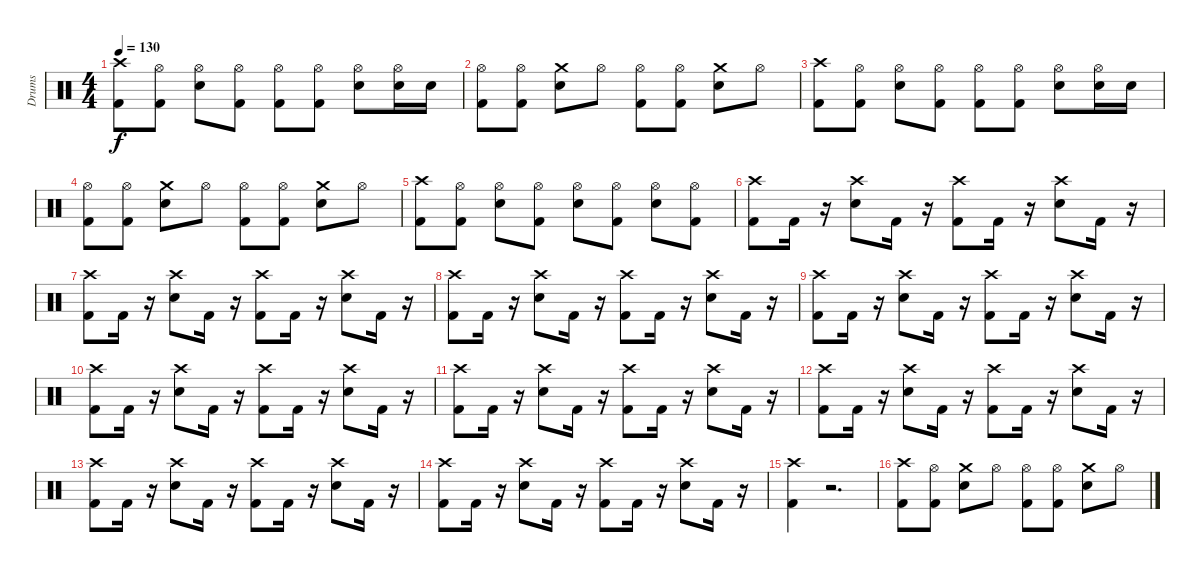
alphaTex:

\track ("Drums" "Drums") {instrument percussion}
\staff {score}
\articulation defaults
\ts (4 4)
\tempo 130
\clef neutral
\ks c
("Kick (hit) 2" "Crash high (hit)").8{dy f} ("Kick (hit) 2" "Hi-Hat (open)").8 ("Electric Snare (hit)" "Hi-Hat (open)").8 ("Kick (hit) 2" "Hi-Hat (open)").8 ("Kick (hit) 2" "Hi-Hat (open)").8 ("Kick (hit) 2" "Hi-Hat (open)").8 ("Electric Snare (hit)" "Hi-Hat (open)").8 ("Electric Snare (hit)" "Hi-Hat (open)").16 "Electric Snare (hit)".16 |
("Kick (hit) 2" "Hi-Hat (open)").8 ("Kick (hit) 2" "Hi-Hat (open)").8 ("Electric Snare (hit)" "Crash medium (hit)").8 "Hi-Hat (open)".8 ("Kick (hit) 2" "Hi-Hat (open)").8 ("Kick (hit) 2" "Hi-Hat (open)").8 ("Electric Snare (hit)" "Crash medium (hit)").8 "Hi-Hat (open)".8 |
("Kick (hit) 2" "Crash high (hit)").8 ("Kick (hit) 2" "Hi-Hat (open)").8 ("Electric Snare (hit)" "Hi-Hat (open)").8 ("Kick (hit) 2" "Hi-Hat (open)").8 ("Kick (hit) 2" "Hi-Hat (open)").8 ("Kick (hit) 2" "Hi-Hat (open)").8 ("Electric Snare (hit)" "Hi-Hat (open)").8 ("Electric Snare (hit)" "Hi-Hat (open)").16 "Electric Snare (hit)".16 |
("Kick (hit) 2" "Hi-Hat (open)").8 ("Kick (hit) 2" "Hi-Hat (open)").8 ("Electric Snare (hit)" "Crash medium (hit)").8 "Hi-Hat (open)".8 ("Kick (hit) 2" "Hi-Hat (open)").8 ("Kick (hit) 2" "Hi-Hat (open)").8 ("Electric Snare (hit)" "Crash medium (hit)").8 "Hi-Hat (open)".8 |
("Kick (hit) 2" "Crash high (hit)").8 ("Kick (hit) 2" "Hi-Hat (open)").8 ("Electric Snare (hit)" "Hi-Hat (open)").8 ("Kick (hit) 2" "Hi-Hat (open)").8 ("Hi-Hat (open)" "Electric Snare (hit)").8 ("Kick (hit) 2" "Hi-Hat (open)").8 ("Electric Snare (hit)" "Hi-Hat (open)").8 ("Hi-Hat (open)" "Kick (hit) 2").8 |
("Kick (hit) 2" "Crash high (hit)").8 "Kick (hit) 2".16 r.16 ("Electric Snare (hit)" "Crash high (hit)").8 "Kick (hit) 2".16 r.16 ("Kick (hit) 2" "Crash high (hit)").8 "Kick (hit) 2".16 r.16 ("Electric Snare (hit)" "Crash high (hit)").8 "Kick (hit) 2".16 r.16 |
("Kick (hit) 2" "Crash high (hit)").8 "Kick (hit) 2".16 r.16 ("Electric Snare (hit)" "Crash high (hit)").8 "Kick (hit) 2".16 r.16 ("Kick (hit) 2" "Crash high (hit)").8 "Kick (hit) 2".16 r.16 ("Electric Snare (hit)" "Crash high (hit)").8 "Kick (hit) 2".16 r.16 |
("Kick (hit) 2" "Crash high (hit)").8 "Kick (hit) 2".16 r.16 ("Electric Snare (hit)" "Crash high (hit)").8 "Kick (hit) 2".16 r.16 ("Kick (hit) 2" "Crash high (hit)").8 "Kick (hit) 2".16 r.16 ("Electric Snare (hit)" "Crash high (hit)").8 "Kick (hit) 2".16 r.16 |
("Kick (hit) 2" "Crash high (hit)").8 "Kick (hit) 2".16 r.16 ("Electric Snare (hit)" "Crash high (hit)").8 "Kick (hit) 2".16 r.16 ("Kick (hit) 2" "Crash high (hit)").8 "Kick (hit) 2".16 r.16 ("Electric Snare (hit)" "Crash high (hit)").8 "Kick (hit) 2".16 r.16 |
("Kick (hit) 2" "Crash high (hit)").8 "Kick (hit) 2".16 r.16 ("Electric Snare (hit)" "Crash high (hit)").8 "Kick (hit) 2".16 r.16 ("Kick (hit) 2" "Crash high (hit)").8 "Kick (hit) 2".16 r.16 ("Electric Snare (hit)" "Crash high (hit)").8 "Kick (hit) 2".16 r.16 |
("Kick (hit) 2" "Crash high (hit)").8 "Kick (hit) 2".16 r.16 ("Electric Snare (hit)" "Crash high (hit)").8 "Kick (hit) 2".16 r.16 ("Kick (hit) 2" "Crash high (hit)").8 "Kick (hit) 2".16 r.16 ("Electric Snare (hit)" "Crash high (hit)").8 "Kick (hit) 2".16 r.16 |
("Kick (hit) 2" "Crash high (hit)").8 "Kick (hit) 2".16 r.16 ("Electric Snare (hit)" "Crash high (hit)").8 "Kick (hit) 2".16 r.16 ("Kick (hit) 2" "Crash high (hit)").8 "Kick (hit) 2".16 r.16 ("Electric Snare (hit)" "Crash high (hit)").8 "Kick (hit) 2".16 r.16 |
("Kick (hit) 2" "Crash high (hit)").8 "Kick (hit) 2".16 r.16 ("Electric Snare (hit)" "Crash high (hit)").8 "Kick (hit) 2".16 r.16 ("Kick (hit) 2" "Crash high (hit)").8 "Kick (hit) 2".16 r.16 ("Electric Snare (hit)" "Crash high (hit)").8 "Kick (hit) 2".16 r.16 |
("Kick (hit) 2" "Crash high (hit)").8 "Kick (hit) 2".16 r.16 ("Electric Snare (hit)" "Crash high (hit)").8 "Kick (hit) 2".16 r.16 ("Kick (hit) 2" "Crash high (hit)").8 "Kick (hit) 2".16 r.16 ("Electric Snare (hit)" "Crash high (hit)").8 "Kick (hit) 2".16 r.16 |
("Kick (hit) 2" "Crash high (hit)").4 r.2{d} |
("Kick (hit) 2" "Crash high (hit)").8 ("Kick (hit) 2" "Hi-Hat (open)").8 ("Electric Snare (hit)" "Crash medium (hit)").8 "Hi-Hat (open)".8 ("Kick (hit) 2" "Hi-Hat (open)").8 ("Kick (hit) 2" "Hi-Hat (open)").8 ("Electric Snare (hit)" "Crash medium (hit)").8 "Hi-Hat (open)".8
